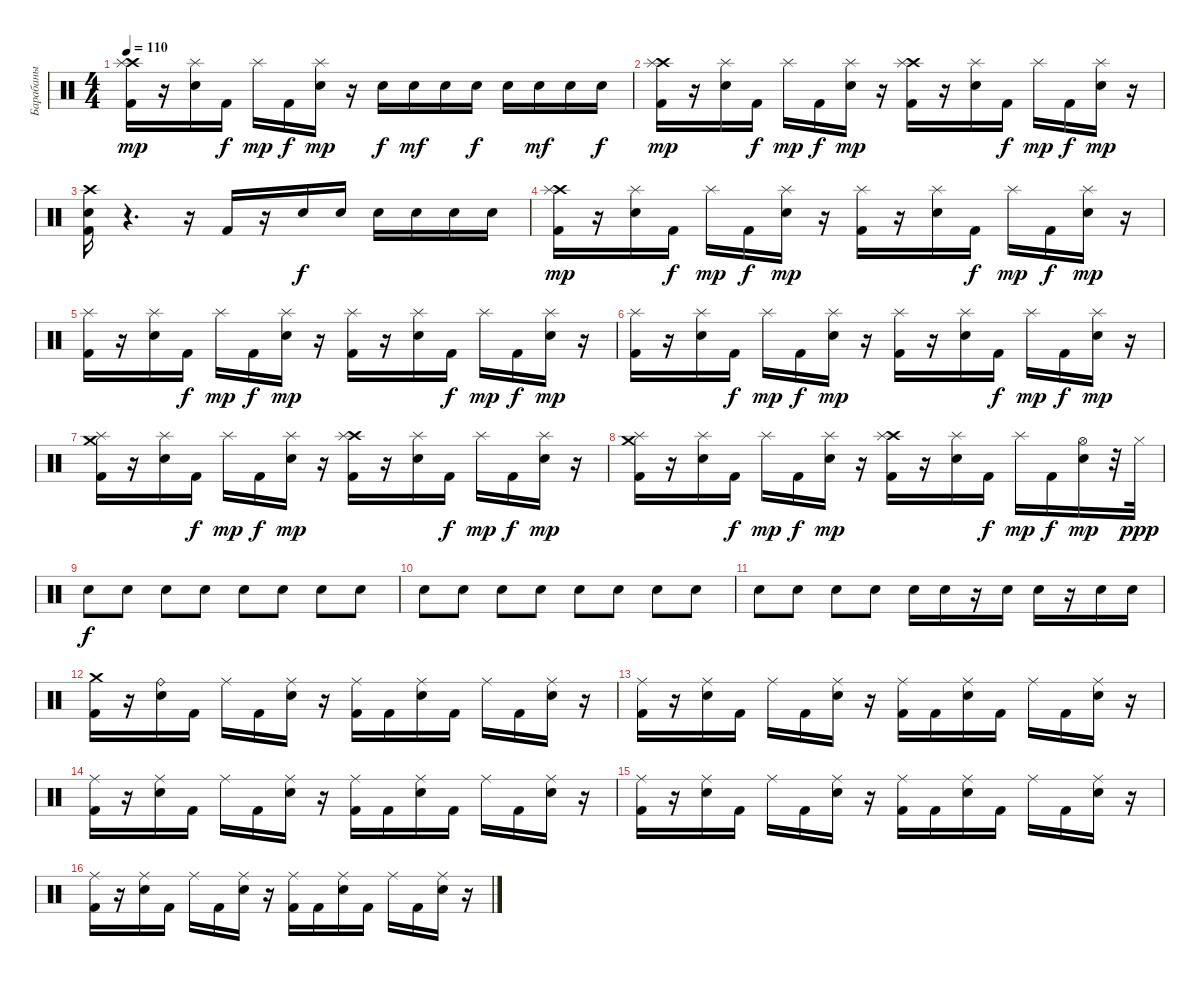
\track ("Барабаны" "Барабаны") {instrument percussion}
\staff {score}
\articulation defaults
\ts (4 4)
\tempo 110
\clef neutral
\ks c
("Crash high (hit)" "Splash (hit)" "Kick (hit) 2").16{dy mp} r.16 ("Splash (hit)" "Snare (hit) 2").16 "Kick (hit) 2".16{dy f} "Splash (hit)".16{dy mp} "Kick (hit) 2".16{dy f} ("Splash (hit)" "Snare (hit) 2").16{dy mp} r.16 "Snare (hit) 2".16{dy f} "Snare (hit) 2".16{dy mf} "Snare (hit) 2".16 "Snare (hit) 2".16{dy f} "Snare (hit) 2".16 "Snare (hit) 2".16{dy mf} "Snare (hit) 2".16 "Snare (hit) 2".16{dy f} |
("Crash high (hit)" "Splash (hit)" "Kick (hit) 2").16{dy mp} r.16 ("Splash (hit)" "Snare (hit) 2").16 "Kick (hit) 2".16{dy f} "Splash (hit)".16{dy mp} "Kick (hit) 2".16{dy f} ("Splash (hit)" "Snare (hit) 2").16{dy mp} r.16 ("Crash high (hit)" "Splash (hit)" "Kick (hit) 2").16 r.16 ("Splash (hit)" "Snare (hit) 2").16 "Kick (hit) 2".16{dy f} "Splash (hit)".16{dy mp} "Kick (hit) 2".16{dy f} ("Splash (hit)" "Snare (hit) 2").16{dy mp} r.16 |
("Crash high (hit)" "Snare (hit) 2" "Kick (hit) 2").16 r.4{d} r.16 "Kick (hit) 2".16 r.16 "Snare (hit) 2".16{dy f} "Snare (hit) 2".16 "Snare (hit) 2".16 "Snare (hit) 2".16 "Snare (hit) 2".16 "Snare (hit) 2".16 |
("Crash high (hit)" "Splash (hit)" "Kick (hit) 2").16{dy mp} r.16 ("Splash (hit)" "Snare (hit) 2").16 "Kick (hit) 2".16{dy f} "Splash (hit)".16{dy mp} "Kick (hit) 2".16{dy f} ("Splash (hit)" "Snare (hit) 2").16{dy mp} r.16 ("Splash (hit)" "Kick (hit) 2").16 r.16 ("Splash (hit)" "Snare (hit) 2").16 "Kick (hit) 2".16{dy f} "Splash (hit)".16{dy mp} "Kick (hit) 2".16{dy f} ("Splash (hit)" "Snare (hit) 2").16{dy mp} r.16 |
("Splash (hit)" "Kick (hit) 2").16 r.16 ("Splash (hit)" "Snare (hit) 2").16 "Kick (hit) 2".16{dy f} "Splash (hit)".16{dy mp} "Kick (hit) 2".16{dy f} ("Splash (hit)" "Snare (hit) 2").16{dy mp} r.16 ("Splash (hit)" "Kick (hit) 2").16 r.16 ("Splash (hit)" "Snare (hit) 2").16 "Kick (hit) 2".16{dy f} "Splash (hit)".16{dy mp} "Kick (hit) 2".16{dy f} ("Splash (hit)" "Snare (hit) 2").16{dy mp} r.16 |
("Splash (hit)" "Kick (hit) 2").16 r.16 ("Splash (hit)" "Snare (hit) 2").16 "Kick (hit) 2".16{dy f} "Splash (hit)".16{dy mp} "Kick (hit) 2".16{dy f} ("Splash (hit)" "Snare (hit) 2").16{dy mp} r.16 ("Splash (hit)" "Kick (hit) 2").16 r.16 ("Splash (hit)" "Snare (hit) 2").16 "Kick (hit) 2".16{dy f} "Splash (hit)".16{dy mp} "Kick (hit) 2".16{dy f} ("Splash (hit)" "Snare (hit) 2").16{dy mp} r.16 |
("Crash medium (hit)" "Splash (hit)" "Kick (hit) 2").16 r.16 ("Splash (hit)" "Snare (hit) 2").16 "Kick (hit) 2".16{dy f} "Splash (hit)".16{dy mp} "Kick (hit) 2".16{dy f} ("Splash (hit)" "Snare (hit) 2").16{dy mp} r.16 ("Crash high (hit)" "Splash (hit)" "Kick (hit) 2").16 r.16 ("Splash (hit)" "Snare (hit) 2").16 "Kick (hit) 2".16{dy f} "Splash (hit)".16{dy mp} "Kick (hit) 2".16{dy f} ("Splash (hit)" "Snare (hit) 2").16{dy mp} r.16 |
("Crash medium (hit)" "Splash (hit)" "Kick (hit) 2").16 r.16 ("Splash (hit)" "Snare (hit) 2").16 "Kick (hit) 2".16{dy f} "Splash (hit)".16{dy mp} "Kick (hit) 2".16{dy f} ("Splash (hit)" "Snare (hit) 2").16{dy mp} r.16 ("Crash high (hit)" "Splash (hit)" "Kick (hit) 2").16 r.16 ("Splash (hit)" "Snare (hit) 2").16 "Kick (hit) 2".16{dy f} "Splash (hit)".16{dy mp} "Kick (hit) 2".16{dy f} ("Hi-Hat (open)" "Snare (hit) 2").16{dy mp} r.32 "Hi-Hat (closed)".32{dy ppp} |
"Snare (hit) 2".8{dy f} "Snare (hit) 2".8 "Snare (hit) 2".8 "Snare (hit) 2".8 "Snare (hit) 2".8 "Snare (hit) 2".8 "Snare (hit) 2".8 "Snare (hit) 2".8 |
"Snare (hit) 2".8 "Snare (hit) 2".8 "Snare (hit) 2".8 "Snare (hit) 2".8 "Snare (hit) 2".8 "Snare (hit) 2".8 "Snare (hit) 2".8 "Snare (hit) 2".8 |
"Snare (hit) 2".8 "Snare (hit) 2".8 "Snare (hit) 2".8 "Snare (hit) 2".8 "Snare (hit) 2".16 "Snare (hit) 2".16 r.16 "Snare (hit) 2".16 "Snare (hit) 2".16 r.16 "Snare (hit) 2".16 "Snare (hit) 2".16 |
("Crash medium (hit)" "Kick (hit) 2").16 r.16 ("Ride (bell)" "Snare (hit) 2").16 "Kick (hit) 2".16 "Ride (middle)".16 "Kick (hit) 2".16 ("Ride (middle)" "Snare (hit) 2").16 r.16 ("Ride (middle)" "Kick (hit) 2").16 "Kick (hit) 2".16 ("Ride (middle)" "Snare (hit) 2").16 "Kick (hit) 2".16 "Ride (middle)".16 "Kick (hit) 2".16 ("Ride (middle)" "Snare (hit) 2").16 r.16 |
("Ride (middle)" "Kick (hit) 2").16 r.16 ("Ride (middle)" "Snare (hit) 2").16 "Kick (hit) 2".16 "Ride (middle)".16 "Kick (hit) 2".16 ("Ride (middle)" "Snare (hit) 2").16 r.16 ("Ride (middle)" "Kick (hit) 2").16 "Kick (hit) 2".16 ("Ride (middle)" "Snare (hit) 2").16 "Kick (hit) 2".16 "Ride (middle)".16 "Kick (hit) 2".16 ("Ride (middle)" "Snare (hit) 2").16 r.16 |
("Ride (middle)" "Kick (hit) 2").16 r.16 ("Ride (middle)" "Snare (hit) 2").16 "Kick (hit) 2".16 "Ride (middle)".16 "Kick (hit) 2".16 ("Ride (middle)" "Snare (hit) 2").16 r.16 ("Ride (middle)" "Kick (hit) 2").16 "Kick (hit) 2".16 ("Ride (middle)" "Snare (hit) 2").16 "Kick (hit) 2".16 "Ride (middle)".16 "Kick (hit) 2".16 ("Ride (middle)" "Snare (hit) 2").16 r.16 |
("Ride (middle)" "Kick (hit) 2").16 r.16 ("Ride (middle)" "Snare (hit) 2").16 "Kick (hit) 2".16 "Ride (middle)".16 "Kick (hit) 2".16 ("Ride (middle)" "Snare (hit) 2").16 r.16 ("Ride (middle)" "Kick (hit) 2").16 "Kick (hit) 2".16 ("Ride (middle)" "Snare (hit) 2").16 "Kick (hit) 2".16 "Ride (middle)".16 "Kick (hit) 2".16 ("Ride (middle)" "Snare (hit) 2").16 r.16 |
("Ride (middle)" "Kick (hit) 2").16 r.16 ("Ride (middle)" "Snare (hit) 2").16 "Kick (hit) 2".16 "Ride (middle)".16 "Kick (hit) 2".16 ("Ride (middle)" "Snare (hit) 2").16 r.16 ("Ride (middle)" "Kick (hit) 2").16 "Kick (hit) 2".16 ("Ride (middle)" "Snare (hit) 2").16 "Kick (hit) 2".16 "Ride (middle)".16 "Kick (hit) 2".16 ("Ride (middle)" "Snare (hit) 2").16 r.16
